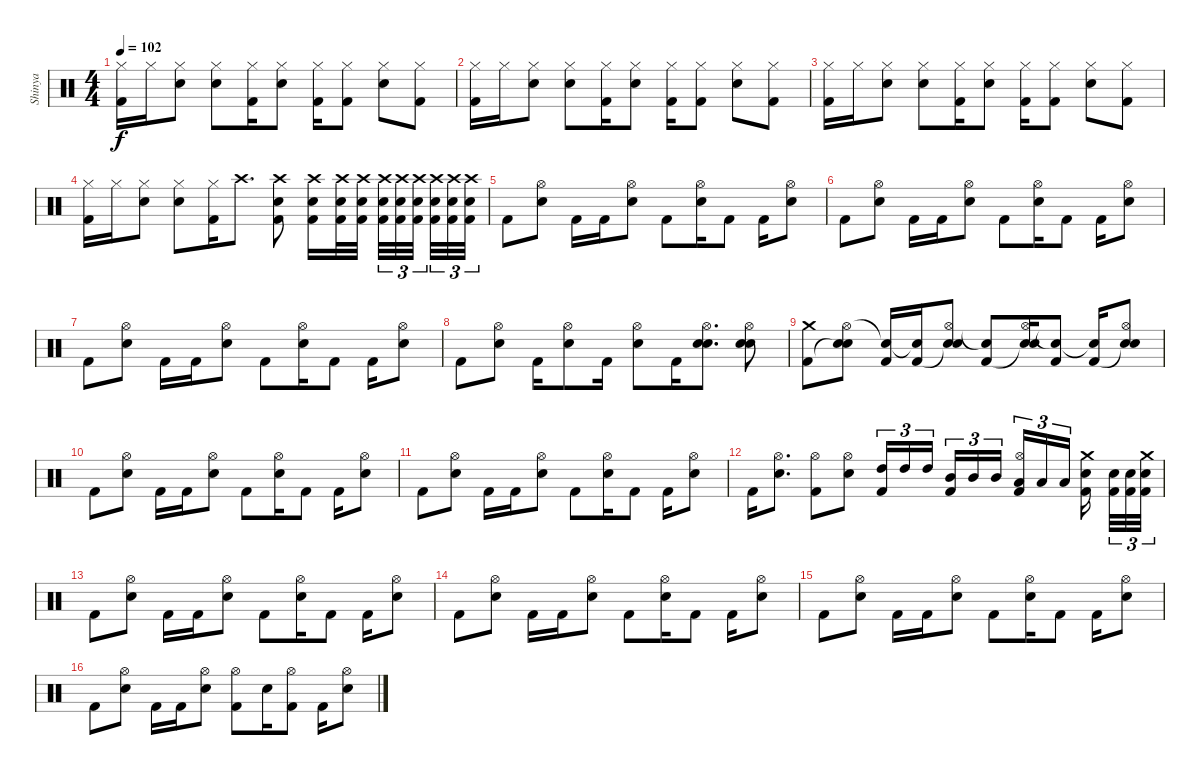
\track ("Shinya" "Shinya") {instrument percussion}
\staff {score}
\articulation defaults
\ts (4 4)
\tempo 102
\clef neutral
\ks c
("Hi-Hat (closed)" "Kick (hit) 2").16{dy f} "Hi-Hat (closed)".16 ("Hi-Hat (closed)" "Electric Snare (hit)").8 ("Hi-Hat (closed)" "Electric Snare (hit)").8 ("Hi-Hat (closed)" "Kick (hit) 2").16 ("Hi-Hat (closed)" "Electric Snare (hit)").8 ("Hi-Hat (closed)" "Kick (hit) 2").16 ("Hi-Hat (closed)" "Kick (hit) 2").8 ("Hi-Hat (closed)" "Electric Snare (hit)").8 ("Hi-Hat (closed)" "Kick (hit) 2").8 |
("Hi-Hat (closed)" "Kick (hit) 2").16 "Hi-Hat (closed)".16 ("Hi-Hat (closed)" "Electric Snare (hit)").8 ("Hi-Hat (closed)" "Electric Snare (hit)").8 ("Hi-Hat (closed)" "Kick (hit) 2").16 ("Hi-Hat (closed)" "Electric Snare (hit)").8 ("Hi-Hat (closed)" "Kick (hit) 2").16 ("Hi-Hat (closed)" "Kick (hit) 2").8 ("Hi-Hat (closed)" "Electric Snare (hit)").8 ("Hi-Hat (closed)" "Kick (hit) 2").8 |
("Hi-Hat (closed)" "Kick (hit) 2").16 "Hi-Hat (closed)".16 ("Hi-Hat (closed)" "Electric Snare (hit)").8 ("Hi-Hat (closed)" "Electric Snare (hit)").8 ("Hi-Hat (closed)" "Kick (hit) 2").16 ("Hi-Hat (closed)" "Electric Snare (hit)").8 ("Hi-Hat (closed)" "Kick (hit) 2").16 ("Hi-Hat (closed)" "Kick (hit) 2").8 ("Hi-Hat (closed)" "Electric Snare (hit)").8 ("Hi-Hat (closed)" "Kick (hit) 2").8 |
("Hi-Hat (closed)" "Kick (hit) 2").16 "Hi-Hat (closed)".16 ("Hi-Hat (closed)" "Electric Snare (hit)").8 ("Hi-Hat (closed)" "Electric Snare (hit)").8 ("Hi-Hat (closed)" "Kick (hit) 2").16 "Crash high (hit)".8{d} ("Crash high (hit)" "Electric Snare (hit)" "Kick (hit) 2").8 ("Crash high (hit)" "Electric Snare (hit)" "Kick (hit) 2").16 ("Crash high (hit)" "Electric Snare (hit)" "Kick (hit) 2").32 ("Crash high (hit)" "Electric Snare (hit)" "Kick (hit) 2").32{beam splitsecondary} ("Crash high (hit)" "Electric Snare (hit)" "Kick (hit) 2").32{tu (3 2)} ("Crash high (hit)" "Electric Snare (hit)" "Kick (hit) 2").32{tu (3 2)} ("Crash high (hit)" "Electric Snare (hit)" "Kick (hit) 2").32{tu (3 2) beam splitsecondary} ("Crash high (hit)" "Electric Snare (hit)" "Kick (hit) 2").32{tu (3 2)} ("Crash high (hit)" "Electric Snare (hit)" "Kick (hit) 2").32{tu (3 2)} ("Crash high (hit)" "Electric Snare (hit)" "Kick (hit) 2").32{tu (3 2)} |
"Kick (hit) 2".8 ("Hi-Hat (open)" "Electric Snare (hit)").8 "Kick (hit) 2".16 "Kick (hit) 2".16 ("Hi-Hat (open)" "Electric Snare (hit)").8 "Kick (hit) 2".8 ("Hi-Hat (open)" "Electric Snare (hit)").16 "Kick (hit) 2".8 "Kick (hit) 2".16 ("Hi-Hat (open)" "Electric Snare (hit)").8 |
"Kick (hit) 2".8 ("Hi-Hat (open)" "Electric Snare (hit)").8 "Kick (hit) 2".16 "Kick (hit) 2".16 ("Hi-Hat (open)" "Electric Snare (hit)").8 "Kick (hit) 2".8 ("Hi-Hat (open)" "Electric Snare (hit)").16 "Kick (hit) 2".8 "Kick (hit) 2".16 ("Hi-Hat (open)" "Electric Snare (hit)").8 |
"Kick (hit) 2".8 ("Hi-Hat (open)" "Electric Snare (hit)").8 "Kick (hit) 2".16 "Kick (hit) 2".16 ("Hi-Hat (open)" "Electric Snare (hit)").8 "Kick (hit) 2".8 ("Hi-Hat (open)" "Electric Snare (hit)").16 "Kick (hit) 2".8 "Kick (hit) 2".16 ("Hi-Hat (open)" "Electric Snare (hit)").8 |
"Kick (hit) 2".8 ("Hi-Hat (open)" "Electric Snare (hit)").8 "Kick (hit) 2".16 ("Hi-Hat (open)" "Electric Snare (hit)").8 "Kick (hit) 2".16 ("Hi-Hat (open)" "Electric Snare (hit)").8 "Kick (hit) 2".16 ("Hi-Hat (open)" "Electric Snare (hit)" "Snare (hit) 2").8{d} ("Hi-Hat (open)" "Electric Snare (hit)" "Snare (hit) 2").8 |
("Crash medium (hit)" "Kick (hit) 2").8 ("Hi-Hat (open)" "Snare (hit)"{t} "Electric Snare (hit)").8 ("Snare (hit)"{t} "Kick (hit) 2").16 ("Snare (hit)"{t} "Kick (hit) 2").16 ("Hi-Hat (open)" "Snare (hit)"{t} "Electric Snare (hit)").8 ("Snare (hit)"{t} "Kick (hit) 2").8 ("Hi-Hat (open)" "Snare (hit)"{t} "Electric Snare (hit)").16 ("Snare (hit)"{t} "Kick (hit) 2").8 ("Snare (hit)"{t} "Kick (hit) 2").16 ("Hi-Hat (open)" "Snare (hit)"{t} "Electric Snare (hit)").8 |
"Kick (hit) 2".8 ("Hi-Hat (open)" "Electric Snare (hit)").8 "Kick (hit) 2".16 "Kick (hit) 2".16 ("Hi-Hat (open)" "Electric Snare (hit)").8 "Kick (hit) 2".8 ("Hi-Hat (open)" "Electric Snare (hit)").16 "Kick (hit) 2".8 "Kick (hit) 2".16 ("Hi-Hat (open)" "Electric Snare (hit)").8 |
"Kick (hit) 2".8 ("Hi-Hat (open)" "Electric Snare (hit)").8 "Kick (hit) 2".16 "Kick (hit) 2".16 ("Hi-Hat (open)" "Electric Snare (hit)").8 "Kick (hit) 2".8 ("Hi-Hat (open)" "Electric Snare (hit)").16 "Kick (hit) 2".8 "Kick (hit) 2".16 ("Hi-Hat (open)" "Electric Snare (hit)").8 |
"Kick (hit) 2".16 ("Hi-Hat (open)" "Electric Snare (hit)").8{d} ("Hi-Hat (open)" "Kick (hit) 2").8 ("Hi-Hat (open)" "Electric Snare (hit)").8 ("High Tom (hit)" "Kick (hit) 2").16{tu (3 2)} "High Tom (hit)".16{tu (3 2)} "High Tom (hit)".16{tu (3 2) beam splitsecondary} ("Mid Tom (hit)" "Kick (hit) 2").16{tu (3 2)} "Mid Tom (hit)".16{tu (3 2)} "Mid Tom (hit)".16{tu (3 2)} ("Hi-Hat (open)" "Low Tom (hit)" "Kick (hit) 2").16{tu (3 2)} "Low Tom (hit)".16{tu (3 2)} "Low Tom (hit)".16{tu (3 2) beam splitsecondary} ("Crash medium (hit)" "Electric Snare (hit)" "Kick (hit) 2").16{beam splitsecondary} ("Electric Snare (hit)" "Kick (hit) 2").32{tu (3 2)} ("Electric Snare (hit)" "Kick (hit) 2").32{tu (3 2)} ("Crash medium (hit)" "Electric Snare (hit)" "Kick (hit) 2").32{tu (3 2)} |
"Kick (hit) 2".8 ("Hi-Hat (open)" "Electric Snare (hit)").8 "Kick (hit) 2".16 "Kick (hit) 2".16 ("Hi-Hat (open)" "Electric Snare (hit)").8 "Kick (hit) 2".8 ("Hi-Hat (open)" "Electric Snare (hit)").16 "Kick (hit) 2".8 "Kick (hit) 2".16 ("Hi-Hat (open)" "Electric Snare (hit)").8 |
"Kick (hit) 2".8 ("Hi-Hat (open)" "Electric Snare (hit)").8 "Kick (hit) 2".16 "Kick (hit) 2".16 ("Hi-Hat (open)" "Electric Snare (hit)").8 "Kick (hit) 2".8 ("Hi-Hat (open)" "Electric Snare (hit)").16 "Kick (hit) 2".8 "Kick (hit) 2".16 ("Hi-Hat (open)" "Electric Snare (hit)").8 |
"Kick (hit) 2".8 ("Hi-Hat (open)" "Electric Snare (hit)").8 "Kick (hit) 2".16 "Kick (hit) 2".16 ("Hi-Hat (open)" "Electric Snare (hit)").8 "Kick (hit) 2".8 ("Hi-Hat (open)" "Electric Snare (hit)").16 "Kick (hit) 2".8 "Kick (hit) 2".16 ("Hi-Hat (open)" "Electric Snare (hit)").8 |
"Kick (hit) 2".8 ("Hi-Hat (open)" "Electric Snare (hit)").8 "Kick (hit) 2".16 "Kick (hit) 2".16 ("Hi-Hat (open)" "Electric Snare (hit)").8 ("Hi-Hat (open)" "Kick (hit) 2").8 "Electric Snare (hit)".16 ("Hi-Hat (open)" "Kick (hit) 2").8 "Kick (hit) 2".16 ("Hi-Hat (open)" "Electric Snare (hit)").8
